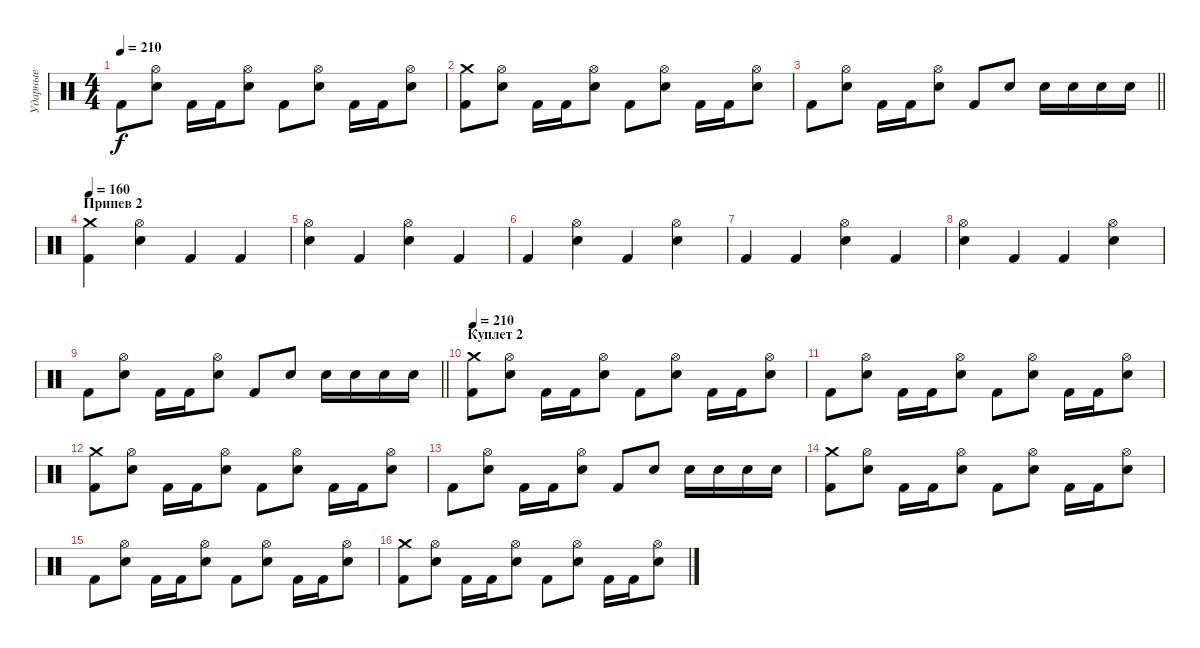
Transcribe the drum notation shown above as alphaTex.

\track ("Ударные" "Ударные") {instrument percussion}
\staff {score}
\articulation defaults
\ts (4 4)
\tempo 210
\clef neutral
\ks c "Kick (hit) 2".8{dy f}
("Electric Snare (hit)" "Hi-Hat (open)").8 "Kick (hit) 2".16 "Kick (hit) 2".16 ("Electric Snare (hit)" "Hi-Hat (open)").8 "Kick (hit) 2".8 ("Electric Snare (hit)" "Hi-Hat (open)").8 "Kick (hit) 2".16 "Kick (hit) 2".16 ("Electric Snare (hit)" "Hi-Hat (open)").8 |
("Kick (hit) 2" "Crash medium (hit)").8 ("Electric Snare (hit)" "Hi-Hat (open)").8 "Kick (hit) 2".16 "Kick (hit) 2".16 ("Electric Snare (hit)" "Hi-Hat (open)").8 "Kick (hit) 2".8 ("Electric Snare (hit)" "Hi-Hat (open)").8 "Kick (hit) 2".16 "Kick (hit) 2".16 ("Electric Snare (hit)" "Hi-Hat (open)").8 |
\barLineRight lightlight "Kick (hit) 2".8
("Electric Snare (hit)" "Hi-Hat (open)").8 "Kick (hit) 2".16 "Kick (hit) 2".16 ("Electric Snare (hit)" "Hi-Hat (open)").8 "Kick (hit) 2".8 "Electric Snare (hit)".8 "Electric Snare (hit)".16 "Electric Snare (hit)".16 "Electric Snare (hit)".16 "Electric Snare (hit)".16 |
\section ("" "Припев 2")
\tempo 160
("Kick (hit) 2" "Crash medium (hit)").4 ("Electric Snare (hit)" "Hi-Hat (open)").4 "Kick (hit) 2".4 "Kick (hit) 2".4 |
("Electric Snare (hit)" "Hi-Hat (open)").4 "Kick (hit) 2".4 ("Electric Snare (hit)" "Hi-Hat (open)").4 "Kick (hit) 2".4 |
"Kick (hit) 2".4 ("Electric Snare (hit)" "Hi-Hat (open)").4 "Kick (hit) 2".4 ("Electric Snare (hit)" "Hi-Hat (open)").4 |
"Kick (hit) 2".4 "Kick (hit) 2".4 ("Electric Snare (hit)" "Hi-Hat (open)").4 "Kick (hit) 2".4 |
("Electric Snare (hit)" "Hi-Hat (open)").4 "Kick (hit) 2".4 "Kick (hit) 2".4 ("Electric Snare (hit)" "Hi-Hat (open)").4 |
\barLineRight lightlight "Kick (hit) 2".8
("Electric Snare (hit)" "Hi-Hat (open)").8 "Kick (hit) 2".16 "Kick (hit) 2".16 ("Electric Snare (hit)" "Hi-Hat (open)").8 "Kick (hit) 2".8 "Electric Snare (hit)".8 "Electric Snare (hit)".16 "Electric Snare (hit)".16 "Electric Snare (hit)".16 "Electric Snare (hit)".16 |
\section ("" "Куплет 2")
\tempo 210
("Kick (hit) 2" "Crash medium (hit)").8 ("Electric Snare (hit)" "Hi-Hat (open)").8 "Kick (hit) 2".16 "Kick (hit) 2".16 ("Electric Snare (hit)" "Hi-Hat (open)").8 "Kick (hit) 2".8 ("Electric Snare (hit)" "Hi-Hat (open)").8 "Kick (hit) 2".16 "Kick (hit) 2".16 ("Electric Snare (hit)" "Hi-Hat (open)").8 |
"Kick (hit) 2".8 ("Electric Snare (hit)" "Hi-Hat (open)").8 "Kick (hit) 2".16 "Kick (hit) 2".16 ("Electric Snare (hit)" "Hi-Hat (open)").8 "Kick (hit) 2".8 ("Electric Snare (hit)" "Hi-Hat (open)").8 "Kick (hit) 2".16 "Kick (hit) 2".16 ("Electric Snare (hit)" "Hi-Hat (open)").8 |
("Kick (hit) 2" "Crash medium (hit)").8 ("Electric Snare (hit)" "Hi-Hat (open)").8 "Kick (hit) 2".16 "Kick (hit) 2".16 ("Electric Snare (hit)" "Hi-Hat (open)").8 "Kick (hit) 2".8 ("Electric Snare (hit)" "Hi-Hat (open)").8 "Kick (hit) 2".16 "Kick (hit) 2".16 ("Electric Snare (hit)" "Hi-Hat (open)").8 |
"Kick (hit) 2".8 ("Electric Snare (hit)" "Hi-Hat (open)").8 "Kick (hit) 2".16 "Kick (hit) 2".16 ("Electric Snare (hit)" "Hi-Hat (open)").8 "Kick (hit) 2".8 "Electric Snare (hit)".8 "Electric Snare (hit)".16 "Electric Snare (hit)".16 "Electric Snare (hit)".16 "Electric Snare (hit)".16 |
("Kick (hit) 2" "Crash medium (hit)").8 ("Electric Snare (hit)" "Hi-Hat (open)").8 "Kick (hit) 2".16 "Kick (hit) 2".16 ("Electric Snare (hit)" "Hi-Hat (open)").8 "Kick (hit) 2".8 ("Electric Snare (hit)" "Hi-Hat (open)").8 "Kick (hit) 2".16 "Kick (hit) 2".16 ("Electric Snare (hit)" "Hi-Hat (open)").8 |
"Kick (hit) 2".8 ("Electric Snare (hit)" "Hi-Hat (open)").8 "Kick (hit) 2".16 "Kick (hit) 2".16 ("Electric Snare (hit)" "Hi-Hat (open)").8 "Kick (hit) 2".8 ("Electric Snare (hit)" "Hi-Hat (open)").8 "Kick (hit) 2".16 "Kick (hit) 2".16 ("Electric Snare (hit)" "Hi-Hat (open)").8 |
("Kick (hit) 2" "Crash medium (hit)").8 ("Electric Snare (hit)" "Hi-Hat (open)").8 "Kick (hit) 2".16 "Kick (hit) 2".16 ("Electric Snare (hit)" "Hi-Hat (open)").8 "Kick (hit) 2".8 ("Electric Snare (hit)" "Hi-Hat (open)").8 "Kick (hit) 2".16 "Kick (hit) 2".16 ("Electric Snare (hit)" "Hi-Hat (open)").8
